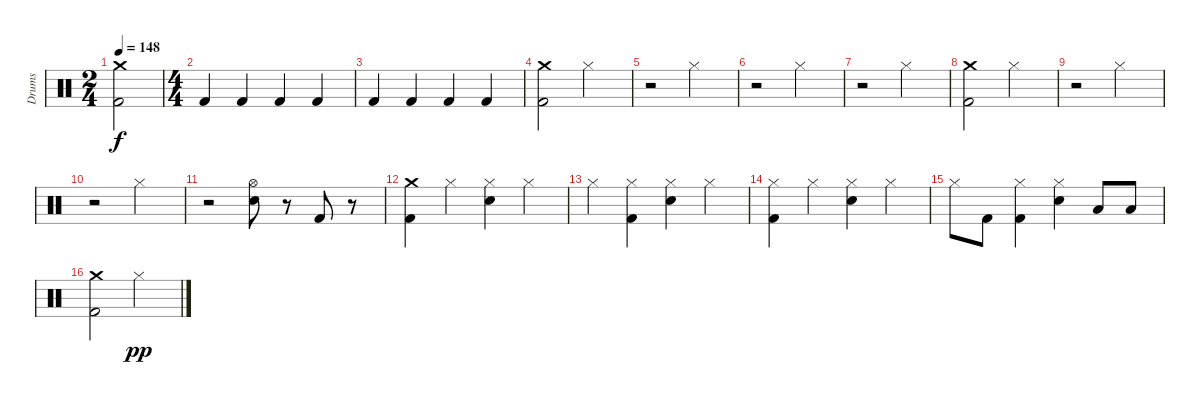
\track ("Drums" "Drums") {instrument percussion}
\staff {score}
\articulation defaults
\ts (2 4)
\tempo 148
\clef neutral
\ks c
("Kick (hit) 2" "Crash medium (hit)").2{dy f} |
\ts (4 4)
"Kick (hit) 2".4 "Kick (hit) 2".4 "Kick (hit) 2".4 "Kick (hit) 2".4 |
"Kick (hit) 2".4 "Kick (hit) 2".4 "Kick (hit) 2".4 "Kick (hit) 2".4 |
("Kick (hit) 2" "Crash medium (hit)").2 "Hi-Hat (closed)".2 |
r.2 "Hi-Hat (closed)".2 |
r.2 "Hi-Hat (closed)".2 |
r.2 "Hi-Hat (closed)".2 |
("Kick (hit) 2" "Crash medium (hit)").2 "Hi-Hat (closed)".2 |
r.2 "Hi-Hat (closed)".2 |
r.2 "Hi-Hat (closed)".2 |
r.2 ("Snare (hit) 2" "Hi-Hat (open)").8 r.8 "Kick (hit) 2".8 r.8 |
("Kick (hit) 2" "Crash medium (hit)").4 "Hi-Hat (closed)".4 ("Snare (hit) 2" "Hi-Hat (closed)").4 "Hi-Hat (closed)".4 |
"Hi-Hat (closed)".4 ("Kick (hit) 2" "Hi-Hat (closed)").4 ("Snare (hit) 2" "Hi-Hat (closed)").4 "Hi-Hat (closed)".4 |
("Kick (hit) 2" "Hi-Hat (closed)").4 "Hi-Hat (closed)".4 ("Snare (hit) 2" "Hi-Hat (closed)").4 "Hi-Hat (closed)".4 |
"Hi-Hat (closed)".8 "Kick (hit) 2".8 ("Kick (hit) 2" "Hi-Hat (closed)").4 ("Snare (hit) 2" "Hi-Hat (closed)").4 "Low Tom (hit)".8 "Low Tom (hit)".8 |
("Kick (hit) 2" "Crash medium (hit)").2 "Hi-Hat (closed)".2{dy pp}
